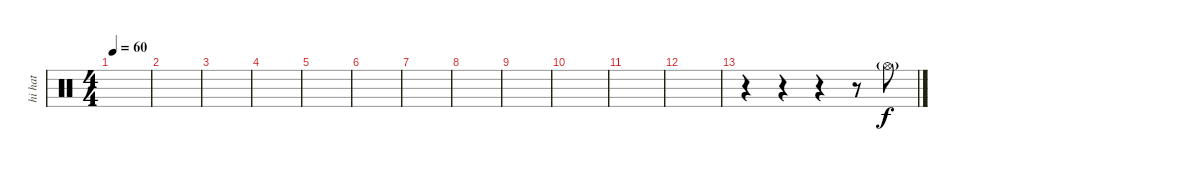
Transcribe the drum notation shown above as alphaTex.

\track ("hi hat" "hi hat") {instrument percussion}
\staff {score}
\articulation defaults
\ts (4 4)
\tempo 60
\clef neutral
\ks c
|
|
|
|
|
|
|
|
|
|
|
|
r.4 r.4 r.4 r.8 "Hi-Hat (open)"{g}.8
